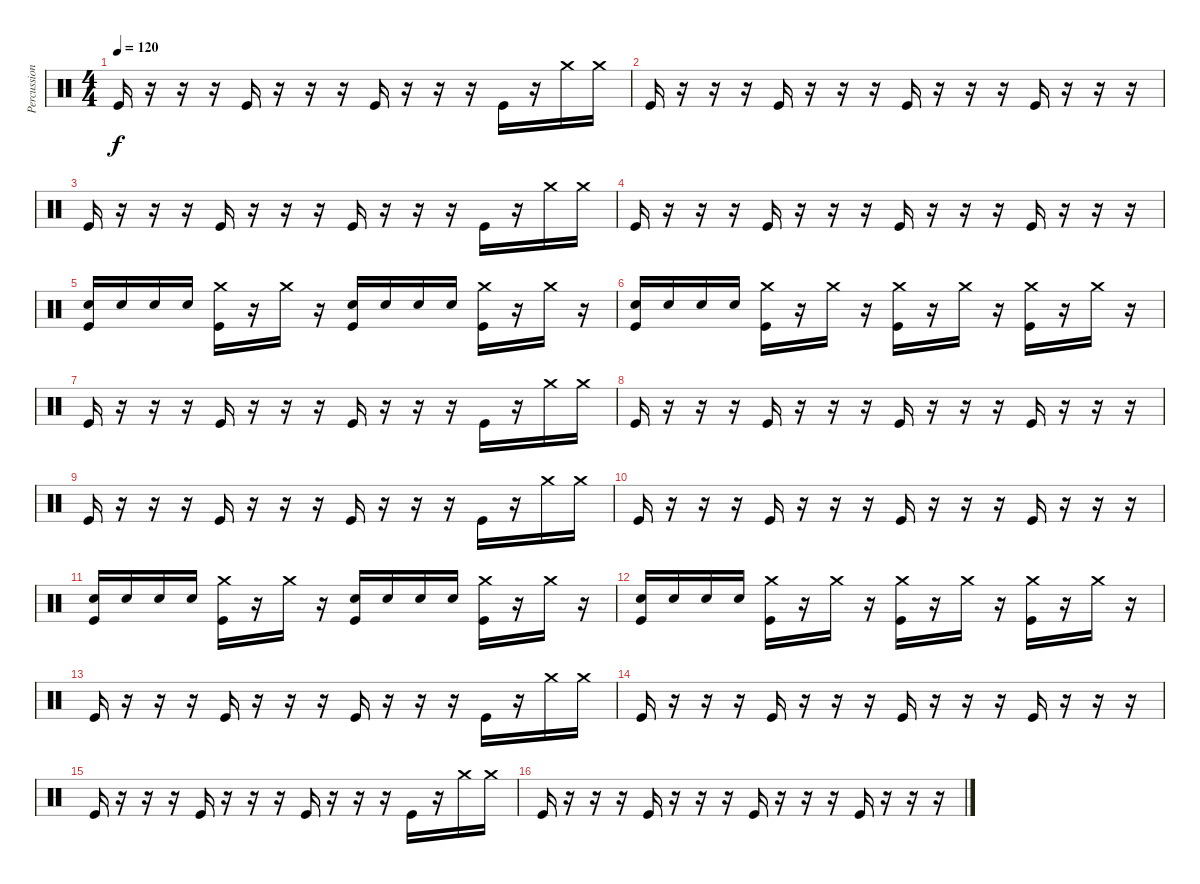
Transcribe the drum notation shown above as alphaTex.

\track ("Percussion" "Percussion") {instrument percussion}
\staff {score}
\articulation defaults
\ts (4 4)
\tempo 120
\clef neutral
\ks c "Kick (hit)".16{dy f}
r.16 r.16 r.16 "Kick (hit)".16 r.16 r.16 r.16 "Kick (hit)".16 r.16 r.16 r.16 "Kick (hit)".16 r.16 "Crash medium (hit)".16 "Crash medium (hit)".16 |
"Kick (hit)".16 r.16 r.16 r.16 "Kick (hit)".16 r.16 r.16 r.16 "Kick (hit)".16 r.16 r.16 r.16 "Kick (hit)".16 r.16 r.16 r.16 |
"Kick (hit)".16 r.16 r.16 r.16 "Kick (hit)".16 r.16 r.16 r.16 "Kick (hit)".16 r.16 r.16 r.16 "Kick (hit)".16 r.16 "Crash medium (hit)".16 "Crash medium (hit)".16 |
"Kick (hit)".16 r.16 r.16 r.16 "Kick (hit)".16 r.16 r.16 r.16 "Kick (hit)".16 r.16 r.16 r.16 "Kick (hit)".16 r.16 r.16 r.16 |
("Kick (hit)" "Snare (hit) 2").16 "Snare (hit) 2".16 "Snare (hit) 2".16 "Snare (hit) 2".16 ("Kick (hit)" "Crash medium (hit)").16 r.16 "Crash medium (hit)".16 r.16 ("Kick (hit)" "Snare (hit) 2").16 "Snare (hit) 2".16 "Snare (hit) 2".16 "Snare (hit) 2".16 ("Kick (hit)" "Crash medium (hit)").16 r.16 "Crash medium (hit)".16 r.16 |
("Kick (hit)" "Snare (hit) 2").16 "Snare (hit) 2".16 "Snare (hit) 2".16 "Snare (hit) 2".16 ("Kick (hit)" "Crash medium (hit)").16 r.16 "Crash medium (hit)".16 r.16 ("Kick (hit)" "Crash medium (hit)").16 r.16 "Crash medium (hit)".16 r.16 ("Kick (hit)" "Crash medium (hit)").16 r.16 "Crash medium (hit)".16 r.16 |
"Kick (hit)".16 r.16 r.16 r.16 "Kick (hit)".16 r.16 r.16 r.16 "Kick (hit)".16 r.16 r.16 r.16 "Kick (hit)".16 r.16 "Crash medium (hit)".16 "Crash medium (hit)".16 |
"Kick (hit)".16 r.16 r.16 r.16 "Kick (hit)".16 r.16 r.16 r.16 "Kick (hit)".16 r.16 r.16 r.16 "Kick (hit)".16 r.16 r.16 r.16 |
"Kick (hit)".16 r.16 r.16 r.16 "Kick (hit)".16 r.16 r.16 r.16 "Kick (hit)".16 r.16 r.16 r.16 "Kick (hit)".16 r.16 "Crash medium (hit)".16 "Crash medium (hit)".16 |
"Kick (hit)".16 r.16 r.16 r.16 "Kick (hit)".16 r.16 r.16 r.16 "Kick (hit)".16 r.16 r.16 r.16 "Kick (hit)".16 r.16 r.16 r.16 |
("Kick (hit)" "Snare (hit) 2").16 "Snare (hit) 2".16 "Snare (hit) 2".16 "Snare (hit) 2".16 ("Kick (hit)" "Crash medium (hit)").16 r.16 "Crash medium (hit)".16 r.16 ("Kick (hit)" "Snare (hit) 2").16 "Snare (hit) 2".16 "Snare (hit) 2".16 "Snare (hit) 2".16 ("Kick (hit)" "Crash medium (hit)").16 r.16 "Crash medium (hit)".16 r.16 |
("Kick (hit)" "Snare (hit) 2").16 "Snare (hit) 2".16 "Snare (hit) 2".16 "Snare (hit) 2".16 ("Kick (hit)" "Crash medium (hit)").16 r.16 "Crash medium (hit)".16 r.16 ("Kick (hit)" "Crash medium (hit)").16 r.16 "Crash medium (hit)".16 r.16 ("Kick (hit)" "Crash medium (hit)").16 r.16 "Crash medium (hit)".16 r.16 |
"Kick (hit)".16 r.16 r.16 r.16 "Kick (hit)".16 r.16 r.16 r.16 "Kick (hit)".16 r.16 r.16 r.16 "Kick (hit)".16 r.16 "Crash medium (hit)".16 "Crash medium (hit)".16 |
"Kick (hit)".16 r.16 r.16 r.16 "Kick (hit)".16 r.16 r.16 r.16 "Kick (hit)".16 r.16 r.16 r.16 "Kick (hit)".16 r.16 r.16 r.16 |
"Kick (hit)".16 r.16 r.16 r.16 "Kick (hit)".16 r.16 r.16 r.16 "Kick (hit)".16 r.16 r.16 r.16 "Kick (hit)".16 r.16 "Crash medium (hit)".16 "Crash medium (hit)".16 |
"Kick (hit)".16 r.16 r.16 r.16 "Kick (hit)".16 r.16 r.16 r.16 "Kick (hit)".16 r.16 r.16 r.16 "Kick (hit)".16 r.16 r.16 r.16
